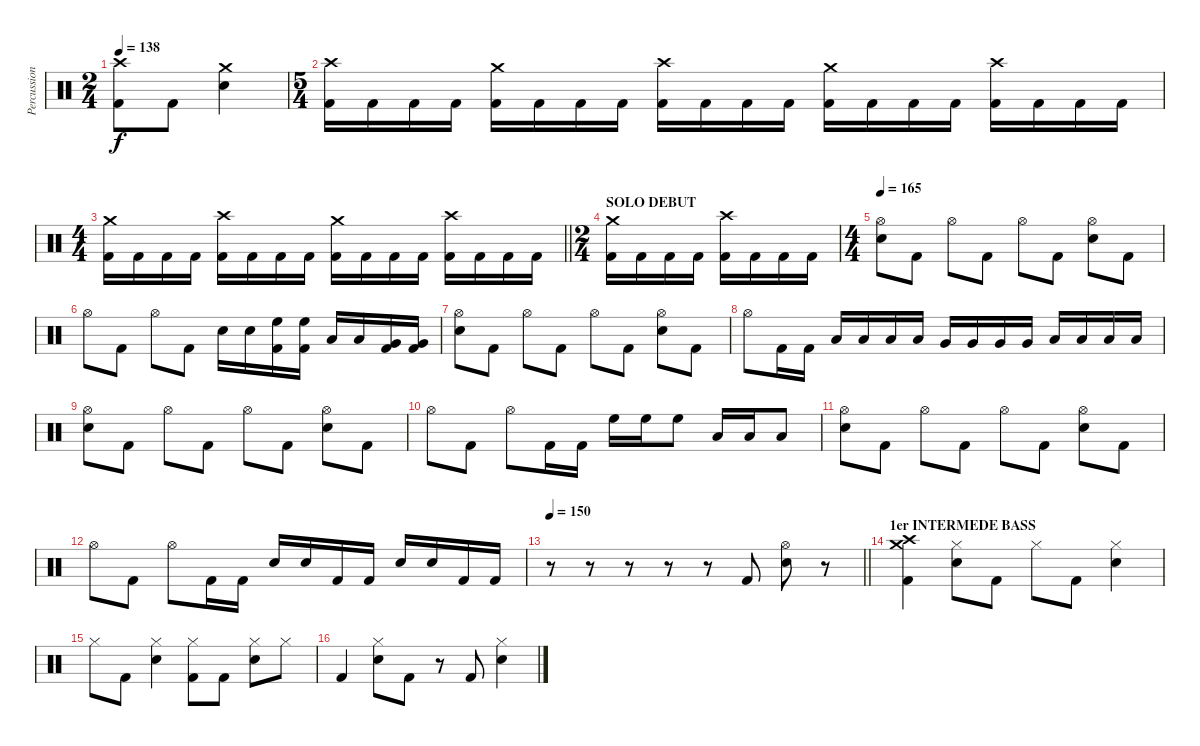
\track ("Percussion" "Percussion") {instrument percussion}
\staff {score}
\articulation defaults
\ts (2 4)
\tempo 138
\clef neutral
\ks c
("Kick (hit) 2" "Crash high (hit)").8{dy f} "Kick (hit) 2".8 ("Electric Snare (hit)" "Crash medium (hit)").4 |
\ts (5 4)
("Kick (hit) 2" "Crash high (hit)").16 "Kick (hit) 2".16 "Kick (hit) 2".16 "Kick (hit) 2".16 ("Kick (hit) 2" "Crash medium (hit)").16 "Kick (hit) 2".16 "Kick (hit) 2".16 "Kick (hit) 2".16 ("Kick (hit) 2" "Crash high (hit)").16 "Kick (hit) 2".16 "Kick (hit) 2".16 "Kick (hit) 2".16 ("Kick (hit) 2" "Crash medium (hit)").16 "Kick (hit) 2".16 "Kick (hit) 2".16 "Kick (hit) 2".16 ("Kick (hit) 2" "Crash high (hit)").16 "Kick (hit) 2".16 "Kick (hit) 2".16 "Kick (hit) 2".16 |
\ts (4 4)
\barLineRight lightlight
("Kick (hit) 2" "Crash medium (hit)").16 "Kick (hit) 2".16 "Kick (hit) 2".16 "Kick (hit) 2".16 ("Kick (hit) 2" "Crash high (hit)").16 "Kick (hit) 2".16 "Kick (hit) 2".16 "Kick (hit) 2".16 ("Kick (hit) 2" "Crash medium (hit)").16 "Kick (hit) 2".16 "Kick (hit) 2".16 "Kick (hit) 2".16 ("Kick (hit) 2" "Crash high (hit)").16 "Kick (hit) 2".16 "Kick (hit) 2".16 "Kick (hit) 2".16 |
\ts (2 4)
\section ("" "SOLO DEBUT")
("Kick (hit) 2" "Crash medium (hit)").16 "Kick (hit) 2".16 "Kick (hit) 2".16 "Kick (hit) 2".16 ("Kick (hit) 2" "Crash high (hit)").16 "Kick (hit) 2".16 "Kick (hit) 2".16 "Kick (hit) 2".16 |
\ts (4 4)
\tempo 165
("Electric Snare (hit)" "Hi-Hat (open)").8 "Kick (hit) 2".8 "Hi-Hat (open)".8 "Kick (hit) 2".8 "Hi-Hat (open)".8 "Kick (hit) 2".8 ("Electric Snare (hit)" "Hi-Hat (open)").8 "Kick (hit) 2".8 |
"Hi-Hat (open)".8 "Kick (hit) 2".8 "Hi-Hat (open)".8 "Kick (hit) 2".8 "Electric Snare (hit)".16 "Electric Snare (hit)".16 ("Kick (hit) 2" "High Floor Tom (hit)").16 ("Kick (hit) 2" "High Floor Tom (hit)").16 "Low Tom (hit)".16 "Low Tom (hit)".16 ("Kick (hit) 2" "Very Low Tom (hit)").16 ("Kick (hit) 2" "Very Low Tom (hit)").16 |
("Electric Snare (hit)" "Hi-Hat (open)").8 "Kick (hit) 2".8 "Hi-Hat (open)".8 "Kick (hit) 2".8 "Hi-Hat (open)".8 "Kick (hit) 2".8 ("Electric Snare (hit)" "Hi-Hat (open)").8 "Kick (hit) 2".8 |
"Hi-Hat (open)".8 "Kick (hit) 2".16 "Kick (hit) 2".16 "Low Tom (hit)".16 "Low Tom (hit)".16 "Low Tom (hit)".16 "Low Tom (hit)".16 "Very Low Tom (hit)".16 "Very Low Tom (hit)".16 "Very Low Tom (hit)".16 "Very Low Tom (hit)".16 "Low Floor Tom (hit)".16 "Low Floor Tom (hit)".16 "Low Floor Tom (hit)".16 "Low Floor Tom (hit)".16 |
("Electric Snare (hit)" "Hi-Hat (open)").8 "Kick (hit) 2".8 "Hi-Hat (open)".8 "Kick (hit) 2".8 "Hi-Hat (open)".8 "Kick (hit) 2".8 ("Electric Snare (hit)" "Hi-Hat (open)").8 "Kick (hit) 2".8 |
"Hi-Hat (open)".8 "Kick (hit) 2".8 "Hi-Hat (open)".8 "Kick (hit) 2".16 "Kick (hit) 2".16 "High Floor Tom (hit)".16 "High Floor Tom (hit)".16 "High Floor Tom (hit)".8 "Low Tom (hit)".16 "Low Tom (hit)".16 "Low Tom (hit)".8 |
("Electric Snare (hit)" "Hi-Hat (open)").8 "Kick (hit) 2".8 "Hi-Hat (open)".8 "Kick (hit) 2".8 "Hi-Hat (open)".8 "Kick (hit) 2".8 ("Electric Snare (hit)" "Hi-Hat (open)").8 "Kick (hit) 2".8 |
"Hi-Hat (open)".8 "Kick (hit) 2".8 "Hi-Hat (open)".8 "Kick (hit) 2".16 "Kick (hit) 2".16 "Electric Snare (hit)".16 "Electric Snare (hit)".16 "Kick (hit) 2".16 "Kick (hit) 2".16 "Electric Snare (hit)".16 "Electric Snare (hit)".16 "Kick (hit) 2".16 "Kick (hit) 2".16 |
\tempo 150
\barLineRight lightlight
r.8 r.8 r.8 r.8 r.8 "Kick (hit) 2".8 ("Electric Snare (hit)" "Hi-Hat (open)").8 r.8 |
\section ("" "1er INTERMEDE BASS")
("Kick (hit) 2" "Crash high (hit)" "Crash medium (hit)").4 ("Electric Snare (hit)" "Hi-Hat (closed)").8 "Kick (hit) 2".8 "Hi-Hat (closed)".8 "Kick (hit) 2".8 ("Electric Snare (hit)" "Hi-Hat (closed)").4 |
"Hi-Hat (closed)".8 "Kick (hit) 2".8 ("Electric Snare (hit)" "Hi-Hat (closed)").4 ("Kick (hit) 2" "Hi-Hat (closed)").8 "Kick (hit) 2".8 ("Electric Snare (hit)" "Hi-Hat (closed)").8 "Hi-Hat (closed)".8 |
"Kick (hit) 2".4 ("Electric Snare (hit)" "Hi-Hat (closed)").8 "Kick (hit) 2".8 r.8 "Kick (hit) 2".8 ("Electric Snare (hit)" "Hi-Hat (closed)").4
